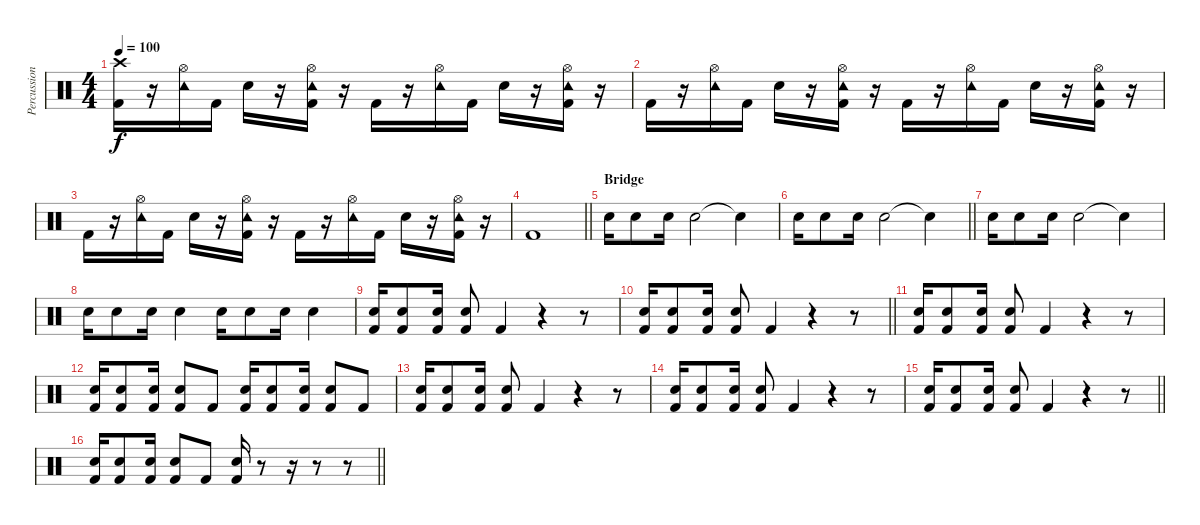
\track ("Percussion" "Percussion") {instrument percussion}
\staff {score}
\articulation defaults
\ts (4 4)
\tempo 100
\clef neutral
\ks c
("Crash high (hit)" "Kick (hit) 2").16{dy f} r.16 ("Tambourine (hit)" "Hi-Hat (open)").16 "Kick (hit) 2".16 "Electric Snare (hit)".16 r.16 ("Tambourine (hit)" "Hi-Hat (open)" "Kick (hit) 2").16 r.16 "Kick (hit) 2".16 r.16 ("Tambourine (hit)" "Hi-Hat (open)").16 "Kick (hit) 2".16 "Electric Snare (hit)".16 r.16 ("Tambourine (hit)" "Hi-Hat (open)" "Kick (hit) 2").16 r.16 |
"Kick (hit) 2".16 r.16 ("Tambourine (hit)" "Hi-Hat (open)").16 "Kick (hit) 2".16 "Electric Snare (hit)".16 r.16 ("Tambourine (hit)" "Hi-Hat (open)" "Kick (hit) 2").16 r.16 "Kick (hit) 2".16 r.16 ("Tambourine (hit)" "Hi-Hat (open)").16 "Kick (hit) 2".16 "Electric Snare (hit)".16 r.16 ("Tambourine (hit)" "Hi-Hat (open)" "Kick (hit) 2").16 r.16 |
"Kick (hit) 2".16 r.16 ("Tambourine (hit)" "Hi-Hat (open)").16 "Kick (hit) 2".16 "Electric Snare (hit)".16 r.16 ("Tambourine (hit)" "Hi-Hat (open)" "Kick (hit) 2").16 r.16 "Kick (hit) 2".16 r.16 ("Tambourine (hit)" "Hi-Hat (open)").16 "Kick (hit) 2".16 "Electric Snare (hit)".16 r.16 ("Tambourine (hit)" "Hi-Hat (open)" "Kick (hit) 2").16 r.16 |
\barLineRight lightlight "Kick (hit) 2".1
|
\section ("" "Bridge")
"Electric Snare (hit)".16 "Electric Snare (hit)".8 "Electric Snare (hit)".16 "Electric Snare (hit)".2 "Snare (hit)"{t}.4 |
\barLineRight lightlight "Electric Snare (hit)".16 "Electric Snare (hit)".8 "Electric Snare (hit)".16 "Electric Snare (hit)".2 "Snare (hit)"{t}.4
|
"Electric Snare (hit)".16 "Electric Snare (hit)".8 "Electric Snare (hit)".16 "Electric Snare (hit)".2 "Snare (hit)"{t}.4 |
"Electric Snare (hit)".16 "Electric Snare (hit)".8 "Electric Snare (hit)".16 "Electric Snare (hit)".4 "Electric Snare (hit)".16 "Electric Snare (hit)".8 "Electric Snare (hit)".16 "Electric Snare (hit)".4 |
("Electric Snare (hit)" "Kick (hit) 2").16 ("Electric Snare (hit)" "Kick (hit) 2").8 ("Electric Snare (hit)" "Kick (hit) 2").16 ("Electric Snare (hit)" "Kick (hit) 2").8 "Kick (hit) 2".4 r.4 r.8 |
\barLineRight lightlight
("Electric Snare (hit)" "Kick (hit) 2").16 ("Electric Snare (hit)" "Kick (hit) 2").8 ("Electric Snare (hit)" "Kick (hit) 2").16 ("Electric Snare (hit)" "Kick (hit) 2").8 "Kick (hit) 2".4 r.4 r.8 |
("Electric Snare (hit)" "Kick (hit) 2").16 ("Electric Snare (hit)" "Kick (hit) 2").8 ("Electric Snare (hit)" "Kick (hit) 2").16 ("Electric Snare (hit)" "Kick (hit) 2").8 "Kick (hit) 2".4 r.4 r.8 |
("Electric Snare (hit)" "Kick (hit) 2").16 ("Electric Snare (hit)" "Kick (hit) 2").8 ("Electric Snare (hit)" "Kick (hit) 2").16 ("Electric Snare (hit)" "Kick (hit) 2").8 "Kick (hit) 2".8 ("Electric Snare (hit)" "Kick (hit) 2").16 ("Electric Snare (hit)" "Kick (hit) 2").8 ("Electric Snare (hit)" "Kick (hit) 2").16 ("Electric Snare (hit)" "Kick (hit) 2").8 "Kick (hit) 2".8 |
("Electric Snare (hit)" "Kick (hit) 2").16 ("Electric Snare (hit)" "Kick (hit) 2").8 ("Electric Snare (hit)" "Kick (hit) 2").16 ("Electric Snare (hit)" "Kick (hit) 2").8 "Kick (hit) 2".4 r.4 r.8 |
("Electric Snare (hit)" "Kick (hit) 2").16 ("Electric Snare (hit)" "Kick (hit) 2").8 ("Electric Snare (hit)" "Kick (hit) 2").16 ("Electric Snare (hit)" "Kick (hit) 2").8 "Kick (hit) 2".4 r.4 r.8 |
\barLineRight lightlight
("Electric Snare (hit)" "Kick (hit) 2").16 ("Electric Snare (hit)" "Kick (hit) 2").8 ("Electric Snare (hit)" "Kick (hit) 2").16 ("Electric Snare (hit)" "Kick (hit) 2").8 "Kick (hit) 2".4 r.4 r.8 |
\barLineRight lightlight
("Electric Snare (hit)" "Kick (hit) 2").16 ("Electric Snare (hit)" "Kick (hit) 2").8 ("Electric Snare (hit)" "Kick (hit) 2").16 ("Electric Snare (hit)" "Kick (hit) 2").8 "Kick (hit) 2".8 ("Electric Snare (hit)" "Kick (hit) 2").16 r.8 r.16 r.8 r.8
